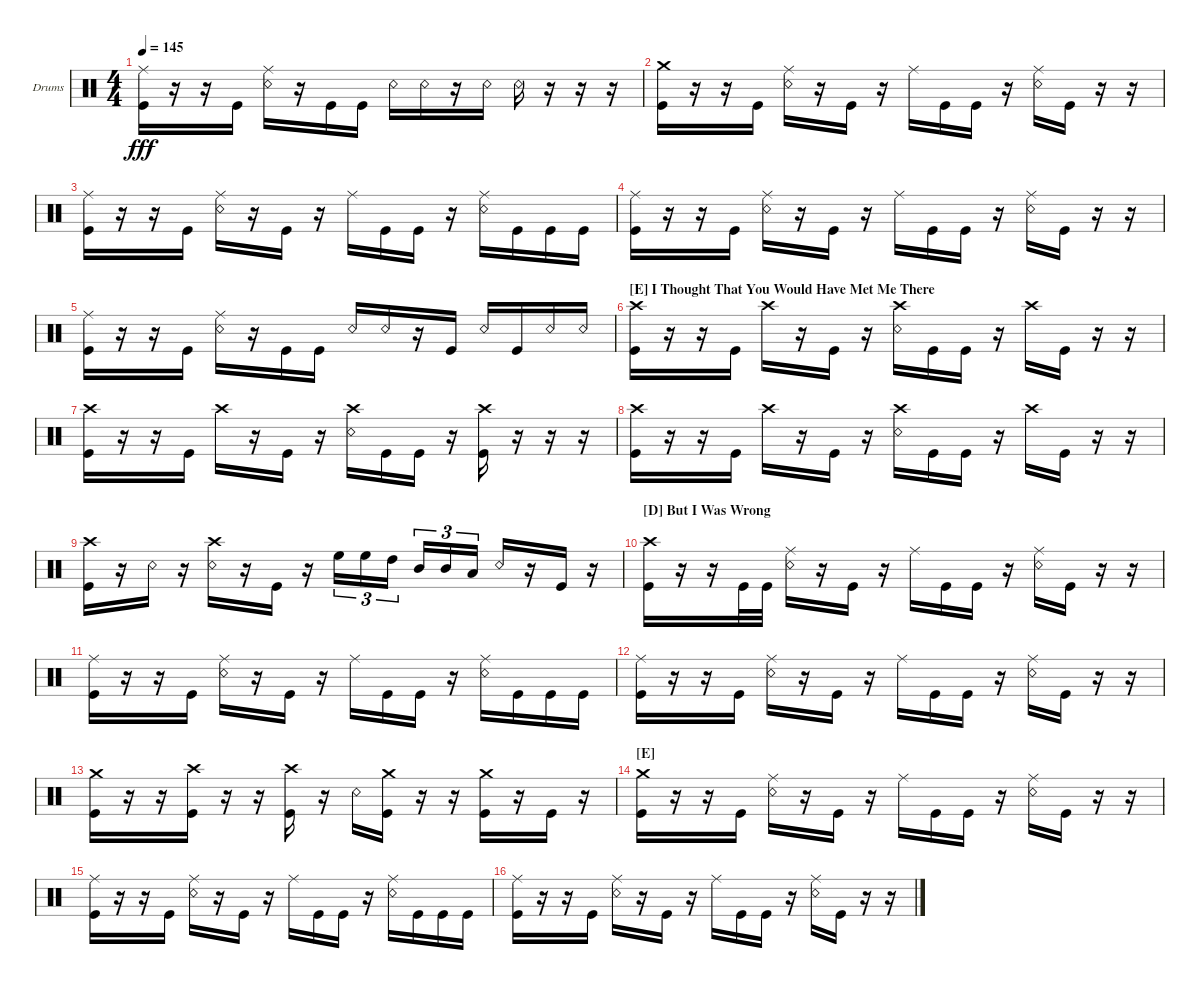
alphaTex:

\defaultSystemsLayout 4
\bracketExtendMode groupsimilarinstruments
\firstSystemTrackNameOrientation horizontal
\otherSystemsTrackNameOrientation horizontal
\track ("Chris Khoury" "Drums") {instrument percussion}
\staff {score}
\articulation defaults
\ts (4 4)
\tempo 145
\clef neutral
\scale
0.333333
\ks c
("Ride (middle)" "Kick (hit)").16{dy fff} r.16 r.16 "Kick (hit)".16 ("Ride (middle)" "Snare (rim shot)").16 r.16 "Kick (hit)".16 "Kick (hit)".16 "Snare (rim shot)".16 "Snare (rim shot)".16 r.16 "Snare (rim shot)".16 "Snare (rim shot)".16 r.16 r.16 r.16 |
\scale
0.333333 ("Crash medium (hit)" "Kick (hit)").16 r.16 r.16 "Kick (hit)".16 ("Ride (middle)" "Snare (rim shot)").16 r.16 "Kick (hit)".16 r.16 "Ride (middle)".16 "Kick (hit)".16 "Kick (hit)".16 r.16 ("Ride (middle)" "Snare (rim shot)").16 "Kick (hit)".16 r.16 r.16 |
\scale
0.333333 ("Ride (middle)" "Kick (hit)").16 r.16 r.16 "Kick (hit)".16 ("Ride (middle)" "Snare (rim shot)").16 r.16 "Kick (hit)".16 r.16 "Ride (middle)".16 "Kick (hit)".16 "Kick (hit)".16 r.16 ("Ride (middle)" "Snare (rim shot)").16 "Kick (hit)".16 "Kick (hit)".16 "Kick (hit)".16 |
\scale
0.333333 ("Ride (middle)" "Kick (hit)").16 r.16 r.16 "Kick (hit)".16 ("Ride (middle)" "Snare (rim shot)").16 r.16 "Kick (hit)".16 r.16 "Ride (middle)".16 "Kick (hit)".16 "Kick (hit)".16 r.16 ("Ride (middle)" "Snare (rim shot)").16 "Kick (hit)".16 r.16 r.16 |
\scale
0.333333 ("Ride (middle)" "Kick (hit)").16 r.16 r.16 "Kick (hit)".16 ("Ride (middle)" "Snare (rim shot)").16 r.16 "Kick (hit)".16 "Kick (hit)".16 "Snare (rim shot)".16 "Snare (rim shot)".16 r.16 "Kick (hit)".16 "Snare (rim shot)".16 "Kick (hit)".16 "Snare (rim shot)".16 "Snare (rim shot)".16 |
\section ("E" "I Thought That You Would Have Met Me There")
\scale
0.333333 ("Crash high (hit)" "Kick (hit)").16 r.16 r.16 "Kick (hit)".16 "Crash high (hit)".16 r.16 "Kick (hit)".16 r.16 ("Crash high (hit)" "Snare (rim shot)").16 "Kick (hit)".16 "Kick (hit)".16 r.16 "Crash high (hit)".16 "Kick (hit)".16 r.16 r.16 |
\scale
0.333333 ("Crash high (hit)" "Kick (hit)").16 r.16 r.16 "Kick (hit)".16 "Crash high (hit)".16 r.16 "Kick (hit)".16 r.16 ("Snare (rim shot)" "Crash high (hit)").16 "Kick (hit)".16 "Kick (hit)".16 r.16 ("Crash high (hit)" "Kick (hit)").16 r.16 r.16 r.16 |
\scale
0.333333 ("Crash high (hit)" "Kick (hit)").16 r.16 r.16 "Kick (hit)".16 "Crash high (hit)".16 r.16 "Kick (hit)".16 r.16 ("Crash high (hit)" "Snare (rim shot)").16 "Kick (hit)".16 "Kick (hit)".16 r.16 "Crash high (hit)".16 "Kick (hit)".16 r.16 r.16 |
\scale
0.333333 ("Crash high (hit)" "Kick (hit)").16 r.16 "Snare (rim shot)".16 r.16 ("Crash high (hit)" "Snare (rim shot)").16 r.16 "Kick (hit)".16 r.16 "High Floor Tom (hit)".16{tu (3 2)} "High Floor Tom (hit)".16{tu (3 2)} "High Tom (hit)".16{tu (3 2)} "Mid Tom (hit)".16{tu (3 2)} "Mid Tom (hit)".16{tu (3 2)} "Low Tom (hit)".16{tu (3 2)} "Snare (rim shot)".16 r.16 "Kick (hit)".16 r.16 |
\section ("D" "But I Was Wrong")
\scale
0.333333 ("Crash high (hit)" "Kick (hit)").16 r.16 r.16 "Kick (hit)".32 "Kick (hit)".32 ("Ride (middle)" "Snare (rim shot)").16 r.16 "Kick (hit)".16 r.16 "Ride (middle)".16 "Kick (hit)".16 "Kick (hit)".16 r.16 ("Ride (middle)" "Snare (rim shot)").16 "Kick (hit)".16 r.16 r.16 |
\scale
0.333333 ("Ride (middle)" "Kick (hit)").16 r.16 r.16 "Kick (hit)".16 ("Ride (middle)" "Snare (rim shot)").16 r.16 "Kick (hit)".16 r.16 "Ride (middle)".16 "Kick (hit)".16 "Kick (hit)".16 r.16 ("Ride (middle)" "Snare (rim shot)").16 "Kick (hit)".16 "Kick (hit)".16 "Kick (hit)".16 |
\scale
0.333333 ("Ride (middle)" "Kick (hit)").16 r.16 r.16 "Kick (hit)".16 ("Ride (middle)" "Snare (rim shot)").16 r.16 "Kick (hit)".16 r.16 "Ride (middle)".16 "Kick (hit)".16 "Kick (hit)".16 r.16 ("Ride (middle)" "Snare (rim shot)").16 "Kick (hit)".16 r.16 r.16 |
\scale
0.333333 ("Kick (hit)" "Crash medium (hit)").16 r.16 r.16 ("Kick (hit)" "Crash high (hit)").16 r.16 r.16 ("Kick (hit)" "Crash high (hit)").16 r.16 "Snare (rim shot)".16 ("Kick (hit)" "Crash medium (hit)").16 r.16 r.16 ("Kick (hit)" "Crash medium (hit)").16 r.16 "Kick (hit)".16 r.16 |
\section ("E" "")
\scale
0.333333 ("Crash medium (hit)" "Kick (hit)").16 r.16 r.16 "Kick (hit)".16 ("Snare (rim shot)" "Ride (middle)").16 r.16 "Kick (hit)".16 r.16 "Ride (middle)".16 "Kick (hit)".16 "Kick (hit)".16 r.16 ("Snare (rim shot)" "Ride (middle)").16 "Kick (hit)".16 r.16 r.16 |
\scale
0.333333 ("Ride (middle)" "Kick (hit)").16 r.16 r.16 "Kick (hit)".16 ("Ride (middle)" "Snare (rim shot)").16 r.16 "Kick (hit)".16 r.16 "Ride (middle)".16 "Kick (hit)".16 "Kick (hit)".16 r.16 ("Ride (middle)" "Snare (rim shot)").16 "Kick (hit)".16 "Kick (hit)".16 "Kick (hit)".16 |
\scale
0.333333 ("Ride (middle)" "Kick (hit)").16 r.16 r.16 "Kick (hit)".16 ("Ride (middle)" "Snare (rim shot)").16 r.16 "Kick (hit)".16 r.16 "Ride (middle)".16 "Kick (hit)".16 "Kick (hit)".16 r.16 ("Ride (middle)" "Snare (rim shot)").16 "Kick (hit)".16 r.16 r.16
